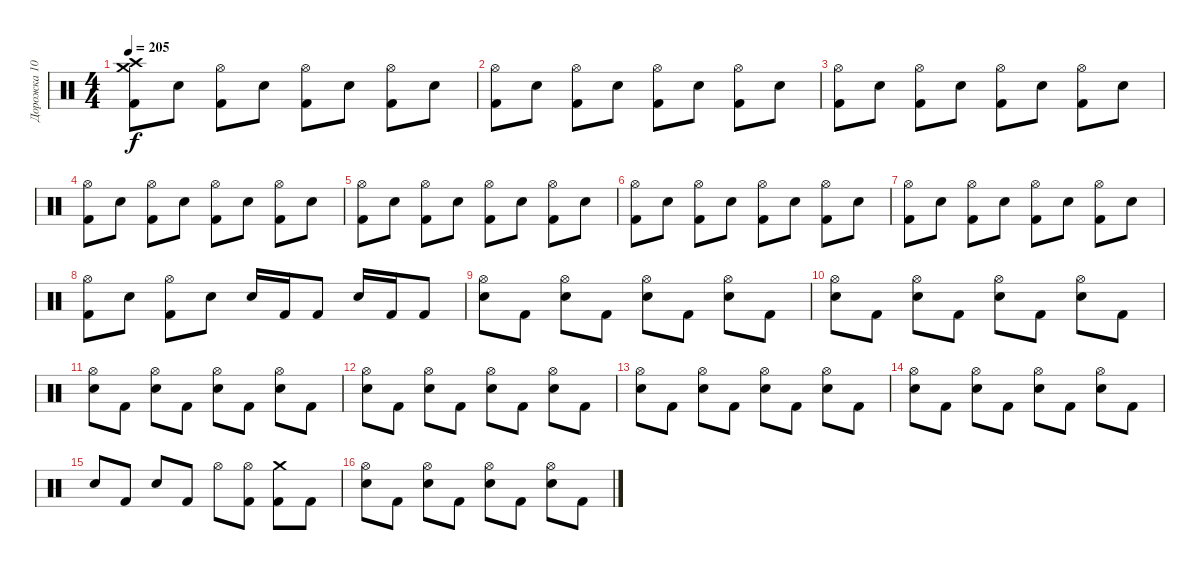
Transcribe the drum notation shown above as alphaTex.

\track ("Дорожка 10" "Дорожка 10") {instrument percussion}
\staff {score}
\articulation defaults
\ts (4 4)
\tempo 205
\clef neutral
\ks c
("Crash medium (hit)" "Crash high (hit)" "Kick (hit) 2").8{dy f} "Electric Snare (hit)".8 ("Hi-Hat (open)" "Kick (hit) 2").8 "Electric Snare (hit)".8 ("Hi-Hat (open)" "Kick (hit) 2").8 "Electric Snare (hit)".8 ("Hi-Hat (open)" "Kick (hit) 2").8 "Electric Snare (hit)".8 |
("Hi-Hat (open)" "Kick (hit) 2").8 "Electric Snare (hit)".8 ("Hi-Hat (open)" "Kick (hit) 2").8 "Electric Snare (hit)".8 ("Hi-Hat (open)" "Kick (hit) 2").8 "Electric Snare (hit)".8 ("Hi-Hat (open)" "Kick (hit) 2").8 "Electric Snare (hit)".8 |
("Hi-Hat (open)" "Kick (hit) 2").8 "Electric Snare (hit)".8 ("Hi-Hat (open)" "Kick (hit) 2").8 "Electric Snare (hit)".8 ("Hi-Hat (open)" "Kick (hit) 2").8 "Electric Snare (hit)".8 ("Hi-Hat (open)" "Kick (hit) 2").8 "Electric Snare (hit)".8 |
("Hi-Hat (open)" "Kick (hit) 2").8 "Electric Snare (hit)".8 ("Hi-Hat (open)" "Kick (hit) 2").8 "Electric Snare (hit)".8 ("Hi-Hat (open)" "Kick (hit) 2").8 "Electric Snare (hit)".8 ("Hi-Hat (open)" "Kick (hit) 2").8 "Electric Snare (hit)".8 |
("Hi-Hat (open)" "Kick (hit) 2").8 "Electric Snare (hit)".8 ("Hi-Hat (open)" "Kick (hit) 2").8 "Electric Snare (hit)".8 ("Hi-Hat (open)" "Kick (hit) 2").8 "Electric Snare (hit)".8 ("Hi-Hat (open)" "Kick (hit) 2").8 "Electric Snare (hit)".8 |
("Hi-Hat (open)" "Kick (hit) 2").8 "Electric Snare (hit)".8 ("Hi-Hat (open)" "Kick (hit) 2").8 "Electric Snare (hit)".8 ("Hi-Hat (open)" "Kick (hit) 2").8 "Electric Snare (hit)".8 ("Hi-Hat (open)" "Kick (hit) 2").8 "Electric Snare (hit)".8 |
("Hi-Hat (open)" "Kick (hit) 2").8 "Electric Snare (hit)".8 ("Hi-Hat (open)" "Kick (hit) 2").8 "Electric Snare (hit)".8 ("Hi-Hat (open)" "Kick (hit) 2").8 "Electric Snare (hit)".8 ("Hi-Hat (open)" "Kick (hit) 2").8 "Electric Snare (hit)".8 |
("Hi-Hat (open)" "Kick (hit) 2").8 "Electric Snare (hit)".8 ("Hi-Hat (open)" "Kick (hit) 2").8 "Electric Snare (hit)".8 "Electric Snare (hit)".16 "Kick (hit) 2".16 "Kick (hit) 2".8 "Electric Snare (hit)".16 "Kick (hit) 2".16 "Kick (hit) 2".8 |
("Hi-Hat (open)" "Electric Snare (hit)").8 "Kick (hit) 2".8 ("Hi-Hat (open)" "Electric Snare (hit)").8 "Kick (hit) 2".8 ("Hi-Hat (open)" "Electric Snare (hit)").8 "Kick (hit) 2".8 ("Hi-Hat (open)" "Electric Snare (hit)").8 "Kick (hit) 2".8 |
("Hi-Hat (open)" "Electric Snare (hit)").8 "Kick (hit) 2".8 ("Hi-Hat (open)" "Electric Snare (hit)").8 "Kick (hit) 2".8 ("Hi-Hat (open)" "Electric Snare (hit)").8 "Kick (hit) 2".8 ("Hi-Hat (open)" "Electric Snare (hit)").8 "Kick (hit) 2".8 |
("Hi-Hat (open)" "Electric Snare (hit)").8 "Kick (hit) 2".8 ("Hi-Hat (open)" "Electric Snare (hit)").8 "Kick (hit) 2".8 ("Hi-Hat (open)" "Electric Snare (hit)").8 "Kick (hit) 2".8 ("Hi-Hat (open)" "Electric Snare (hit)").8 "Kick (hit) 2".8 |
("Hi-Hat (open)" "Electric Snare (hit)").8 "Kick (hit) 2".8 ("Hi-Hat (open)" "Electric Snare (hit)").8 "Kick (hit) 2".8 ("Hi-Hat (open)" "Electric Snare (hit)").8 "Kick (hit) 2".8 ("Hi-Hat (open)" "Electric Snare (hit)").8 "Kick (hit) 2".8 |
("Hi-Hat (open)" "Electric Snare (hit)").8 "Kick (hit) 2".8 ("Hi-Hat (open)" "Electric Snare (hit)").8 "Kick (hit) 2".8 ("Hi-Hat (open)" "Electric Snare (hit)").8 "Kick (hit) 2".8 ("Hi-Hat (open)" "Electric Snare (hit)").8 "Kick (hit) 2".8 |
("Hi-Hat (open)" "Electric Snare (hit)").8 "Kick (hit) 2".8 ("Hi-Hat (open)" "Electric Snare (hit)").8 "Kick (hit) 2".8 ("Hi-Hat (open)" "Electric Snare (hit)").8 "Kick (hit) 2".8 ("Hi-Hat (open)" "Electric Snare (hit)").8 "Kick (hit) 2".8 |
"Electric Snare (hit)".8 "Kick (hit) 2".8 "Electric Snare (hit)".8 "Kick (hit) 2".8 "Hi-Hat (open)".8 ("Hi-Hat (open)" "Kick (hit) 2").8 ("Crash medium (hit)" "Kick (hit) 2").8 "Kick (hit) 2".8 |
("Hi-Hat (open)" "Electric Snare (hit)").8 "Kick (hit) 2".8 ("Hi-Hat (open)" "Electric Snare (hit)").8 "Kick (hit) 2".8 ("Hi-Hat (open)" "Electric Snare (hit)").8 "Kick (hit) 2".8 ("Hi-Hat (open)" "Electric Snare (hit)").8 "Kick (hit) 2".8
